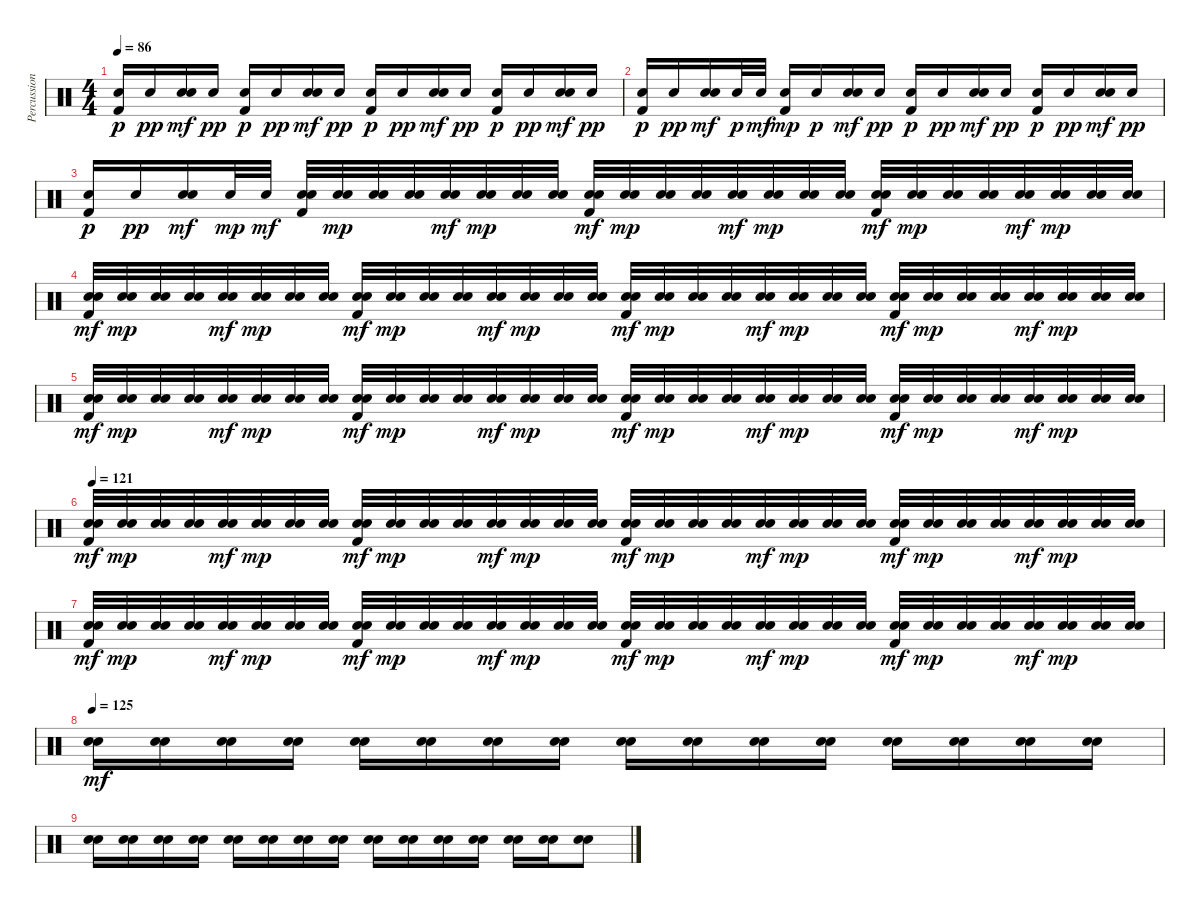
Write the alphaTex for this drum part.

\track ("Percussion" "Percussion") {instrument percussion}
\staff
\articulation defaults
\ts (4 4)
\tempo 86
\clef neutral
\ks c
("Kick (hit) 2" "Snare (hit) 2").16{dy p} "Snare (hit) 2".16{dy pp} ("Electric Snare (hit)" "Snare (hit) 2").16{dy mf} "Snare (hit) 2".16{dy pp} ("Kick (hit) 2" "Snare (hit) 2").16{dy p} "Snare (hit) 2".16{dy pp} ("Electric Snare (hit)" "Snare (hit) 2").16{dy mf} "Snare (hit) 2".16{dy pp} ("Kick (hit) 2" "Snare (hit) 2").16{dy p} "Snare (hit) 2".16{dy pp} ("Electric Snare (hit)" "Snare (hit) 2").16{dy mf} "Snare (hit) 2".16{dy pp} ("Kick (hit) 2" "Snare (hit) 2").16{dy p} "Snare (hit) 2".16{dy pp} ("Electric Snare (hit)" "Snare (hit) 2").16{dy mf} "Snare (hit) 2".16{dy pp} |
("Kick (hit) 2" "Snare (hit) 2").16{dy p} "Snare (hit) 2".16{dy pp} ("Electric Snare (hit)" "Snare (hit) 2").16{dy mf} "Snare (hit) 2".32{dy p} "Snare (hit) 2".32{dy mf} ("Kick (hit) 2" "Snare (hit) 2").16{dy mp} "Snare (hit) 2".16{dy p} ("Electric Snare (hit)" "Snare (hit) 2").16{dy mf} "Snare (hit) 2".16{dy pp} ("Kick (hit) 2" "Snare (hit) 2").16{dy p} "Snare (hit) 2".16{dy pp} ("Electric Snare (hit)" "Snare (hit) 2").16{dy mf} "Snare (hit) 2".16{dy pp} ("Kick (hit) 2" "Snare (hit) 2").16{dy p} "Snare (hit) 2".16{dy pp} ("Electric Snare (hit)" "Snare (hit) 2").16{dy mf} "Snare (hit) 2".16{dy pp} |
("Kick (hit) 2" "Snare (hit) 2").16{dy p} "Snare (hit) 2".16{dy pp} ("Electric Snare (hit)" "Snare (hit) 2").16{dy mf} "Snare (hit) 2".32{dy mp} "Snare (hit) 2".32{dy mf} ("Kick (hit) 2" "Snare (hit) 2" "Electric Snare (hit)").32 ("Electric Snare (hit)" "Snare (hit) 2").32{dy mp} ("Electric Snare (hit)" "Snare (hit) 2").32 ("Electric Snare (hit)" "Snare (hit) 2").32 ("Snare (hit) 2" "Electric Snare (hit)").32{dy mf} ("Electric Snare (hit)" "Snare (hit) 2").32{dy mp} ("Electric Snare (hit)" "Snare (hit) 2").32 ("Electric Snare (hit)" "Snare (hit) 2").32 ("Kick (hit) 2" "Snare (hit) 2" "Electric Snare (hit)").32{dy mf} ("Electric Snare (hit)" "Snare (hit) 2").32{dy mp} ("Electric Snare (hit)" "Snare (hit) 2").32 ("Electric Snare (hit)" "Snare (hit) 2").32 ("Snare (hit) 2" "Electric Snare (hit)").32{dy mf} ("Electric Snare (hit)" "Snare (hit) 2").32{dy mp} ("Electric Snare (hit)" "Snare (hit) 2").32 ("Electric Snare (hit)" "Snare (hit) 2").32 ("Kick (hit) 2" "Snare (hit) 2" "Electric Snare (hit)").32{dy mf} ("Electric Snare (hit)" "Snare (hit) 2").32{dy mp} ("Electric Snare (hit)" "Snare (hit) 2").32 ("Electric Snare (hit)" "Snare (hit) 2").32 ("Snare (hit) 2" "Electric Snare (hit)").32{dy mf} ("Electric Snare (hit)" "Snare (hit) 2").32{dy mp} ("Electric Snare (hit)" "Snare (hit) 2").32 ("Electric Snare (hit)" "Snare (hit) 2").32 |
("Kick (hit) 2" "Snare (hit) 2" "Electric Snare (hit)").32{dy mf} ("Electric Snare (hit)" "Snare (hit) 2").32{dy mp} ("Electric Snare (hit)" "Snare (hit) 2").32 ("Electric Snare (hit)" "Snare (hit) 2").32 ("Snare (hit) 2" "Electric Snare (hit)").32{dy mf} ("Electric Snare (hit)" "Snare (hit) 2").32{dy mp} ("Electric Snare (hit)" "Snare (hit) 2").32 ("Electric Snare (hit)" "Snare (hit) 2").32 ("Kick (hit) 2" "Snare (hit) 2" "Electric Snare (hit)").32{dy mf} ("Electric Snare (hit)" "Snare (hit) 2").32{dy mp} ("Electric Snare (hit)" "Snare (hit) 2").32 ("Electric Snare (hit)" "Snare (hit) 2").32 ("Snare (hit) 2" "Electric Snare (hit)").32{dy mf} ("Electric Snare (hit)" "Snare (hit) 2").32{dy mp} ("Electric Snare (hit)" "Snare (hit) 2").32 ("Electric Snare (hit)" "Snare (hit) 2").32 ("Kick (hit) 2" "Snare (hit) 2" "Electric Snare (hit)").32{dy mf} ("Electric Snare (hit)" "Snare (hit) 2").32{dy mp} ("Electric Snare (hit)" "Snare (hit) 2").32 ("Electric Snare (hit)" "Snare (hit) 2").32 ("Snare (hit) 2" "Electric Snare (hit)").32{dy mf} ("Electric Snare (hit)" "Snare (hit) 2").32{dy mp} ("Electric Snare (hit)" "Snare (hit) 2").32 ("Electric Snare (hit)" "Snare (hit) 2").32 ("Kick (hit) 2" "Snare (hit) 2" "Electric Snare (hit)").32{dy mf} ("Electric Snare (hit)" "Snare (hit) 2").32{dy mp} ("Electric Snare (hit)" "Snare (hit) 2").32 ("Electric Snare (hit)" "Snare (hit) 2").32 ("Snare (hit) 2" "Electric Snare (hit)").32{dy mf} ("Electric Snare (hit)" "Snare (hit) 2").32{dy mp} ("Electric Snare (hit)" "Snare (hit) 2").32 ("Electric Snare (hit)" "Snare (hit) 2").32 |
("Kick (hit) 2" "Snare (hit) 2" "Electric Snare (hit)").32{dy mf} ("Electric Snare (hit)" "Snare (hit) 2").32{dy mp} ("Electric Snare (hit)" "Snare (hit) 2").32 ("Electric Snare (hit)" "Snare (hit) 2").32 ("Snare (hit) 2" "Electric Snare (hit)").32{dy mf} ("Electric Snare (hit)" "Snare (hit) 2").32{dy mp} ("Electric Snare (hit)" "Snare (hit) 2").32 ("Electric Snare (hit)" "Snare (hit) 2").32 ("Kick (hit) 2" "Snare (hit) 2" "Electric Snare (hit)").32{dy mf} ("Electric Snare (hit)" "Snare (hit) 2").32{dy mp} ("Electric Snare (hit)" "Snare (hit) 2").32 ("Electric Snare (hit)" "Snare (hit) 2").32 ("Snare (hit) 2" "Electric Snare (hit)").32{dy mf} ("Electric Snare (hit)" "Snare (hit) 2").32{dy mp} ("Electric Snare (hit)" "Snare (hit) 2").32 ("Electric Snare (hit)" "Snare (hit) 2").32 ("Kick (hit) 2" "Snare (hit) 2" "Electric Snare (hit)").32{dy mf} ("Electric Snare (hit)" "Snare (hit) 2").32{dy mp} ("Electric Snare (hit)" "Snare (hit) 2").32 ("Electric Snare (hit)" "Snare (hit) 2").32 ("Snare (hit) 2" "Electric Snare (hit)").32{dy mf} ("Electric Snare (hit)" "Snare (hit) 2").32{dy mp} ("Electric Snare (hit)" "Snare (hit) 2").32 ("Electric Snare (hit)" "Snare (hit) 2").32 ("Kick (hit) 2" "Snare (hit) 2" "Electric Snare (hit)").32{dy mf} ("Electric Snare (hit)" "Snare (hit) 2").32{dy mp} ("Electric Snare (hit)" "Snare (hit) 2").32 ("Electric Snare (hit)" "Snare (hit) 2").32 ("Snare (hit) 2" "Electric Snare (hit)").32{dy mf} ("Electric Snare (hit)" "Snare (hit) 2").32{dy mp} ("Electric Snare (hit)" "Snare (hit) 2").32 ("Electric Snare (hit)" "Snare (hit) 2").32 |
\tempo 121
("Kick (hit) 2" "Snare (hit) 2" "Electric Snare (hit)").32{dy mf} ("Electric Snare (hit)" "Snare (hit) 2").32{dy mp} ("Electric Snare (hit)" "Snare (hit) 2").32 ("Electric Snare (hit)" "Snare (hit) 2").32 ("Snare (hit) 2" "Electric Snare (hit)").32{dy mf} ("Electric Snare (hit)" "Snare (hit) 2").32{dy mp} ("Electric Snare (hit)" "Snare (hit) 2").32 ("Electric Snare (hit)" "Snare (hit) 2").32 ("Kick (hit) 2" "Snare (hit) 2" "Electric Snare (hit)").32{dy mf} ("Electric Snare (hit)" "Snare (hit) 2").32{dy mp} ("Electric Snare (hit)" "Snare (hit) 2").32 ("Electric Snare (hit)" "Snare (hit) 2").32 ("Snare (hit) 2" "Electric Snare (hit)").32{dy mf} ("Electric Snare (hit)" "Snare (hit) 2").32{dy mp} ("Electric Snare (hit)" "Snare (hit) 2").32 ("Electric Snare (hit)" "Snare (hit) 2").32 ("Kick (hit) 2" "Snare (hit) 2" "Electric Snare (hit)").32{dy mf} ("Electric Snare (hit)" "Snare (hit) 2").32{dy mp} ("Electric Snare (hit)" "Snare (hit) 2").32 ("Electric Snare (hit)" "Snare (hit) 2").32 ("Snare (hit) 2" "Electric Snare (hit)").32{dy mf} ("Electric Snare (hit)" "Snare (hit) 2").32{dy mp} ("Electric Snare (hit)" "Snare (hit) 2").32 ("Electric Snare (hit)" "Snare (hit) 2").32 ("Kick (hit) 2" "Snare (hit) 2" "Electric Snare (hit)").32{dy mf} ("Electric Snare (hit)" "Snare (hit) 2").32{dy mp} ("Electric Snare (hit)" "Snare (hit) 2").32 ("Electric Snare (hit)" "Snare (hit) 2").32 ("Snare (hit) 2" "Electric Snare (hit)").32{dy mf} ("Electric Snare (hit)" "Snare (hit) 2").32{dy mp} ("Electric Snare (hit)" "Snare (hit) 2").32 ("Electric Snare (hit)" "Snare (hit) 2").32 |
("Kick (hit) 2" "Snare (hit) 2" "Electric Snare (hit)").32{dy mf} ("Electric Snare (hit)" "Snare (hit) 2").32{dy mp} ("Electric Snare (hit)" "Snare (hit) 2").32 ("Electric Snare (hit)" "Snare (hit) 2").32 ("Snare (hit) 2" "Electric Snare (hit)").32{dy mf} ("Electric Snare (hit)" "Snare (hit) 2").32{dy mp} ("Electric Snare (hit)" "Snare (hit) 2").32 ("Electric Snare (hit)" "Snare (hit) 2").32 ("Kick (hit) 2" "Snare (hit) 2" "Electric Snare (hit)").32{dy mf} ("Electric Snare (hit)" "Snare (hit) 2").32{dy mp} ("Electric Snare (hit)" "Snare (hit) 2").32 ("Electric Snare (hit)" "Snare (hit) 2").32 ("Snare (hit) 2" "Electric Snare (hit)").32{dy mf volume 8} ("Electric Snare (hit)" "Snare (hit) 2").32{dy mp} ("Electric Snare (hit)" "Snare (hit) 2").32 ("Electric Snare (hit)" "Snare (hit) 2").32 ("Kick (hit) 2" "Snare (hit) 2" "Electric Snare (hit)").32{dy mf} ("Electric Snare (hit)" "Snare (hit) 2").32{dy mp} ("Electric Snare (hit)" "Snare (hit) 2").32 ("Electric Snare (hit)" "Snare (hit) 2").32 ("Snare (hit) 2" "Electric Snare (hit)").32{dy mf} ("Electric Snare (hit)" "Snare (hit) 2").32{dy mp} ("Electric Snare (hit)" "Snare (hit) 2").32 ("Electric Snare (hit)" "Snare (hit) 2").32 ("Kick (hit) 2" "Snare (hit) 2" "Electric Snare (hit)").32{dy mf} ("Electric Snare (hit)" "Snare (hit) 2").32{dy mp} ("Electric Snare (hit)" "Snare (hit) 2").32 ("Electric Snare (hit)" "Snare (hit) 2").32 ("Snare (hit) 2" "Electric Snare (hit)").32{dy mf} ("Electric Snare (hit)" "Snare (hit) 2").32{dy mp} ("Electric Snare (hit)" "Snare (hit) 2").32 ("Electric Snare (hit)" "Snare (hit) 2").32 |
\tempo 125
("Electric Snare (hit)" "Snare (hit) 2").16{dy mf volume 12} ("Electric Snare (hit)" "Snare (hit) 2").16 ("Electric Snare (hit)" "Snare (hit) 2").16 ("Electric Snare (hit)" "Snare (hit) 2").16 ("Electric Snare (hit)" "Snare (hit) 2").16 ("Electric Snare (hit)" "Snare (hit) 2").16 ("Electric Snare (hit)" "Snare (hit) 2").16 ("Electric Snare (hit)" "Snare (hit) 2").16 ("Electric Snare (hit)" "Snare (hit) 2").16 ("Electric Snare (hit)" "Snare (hit) 2").16 ("Electric Snare (hit)" "Snare (hit) 2").16 ("Electric Snare (hit)" "Snare (hit) 2").16 ("Electric Snare (hit)" "Snare (hit) 2").16 ("Electric Snare (hit)" "Snare (hit) 2").16 ("Electric Snare (hit)" "Snare (hit) 2").16 ("Electric Snare (hit)" "Snare (hit) 2").16 |
("Electric Snare (hit)" "Snare (hit) 2").16 ("Electric Snare (hit)" "Snare (hit) 2").16 ("Electric Snare (hit)" "Snare (hit) 2").16 ("Electric Snare (hit)" "Snare (hit) 2").16 ("Electric Snare (hit)" "Snare (hit) 2").16 ("Electric Snare (hit)" "Snare (hit) 2").16 ("Electric Snare (hit)" "Snare (hit) 2").16 ("Electric Snare (hit)" "Snare (hit) 2").16 ("Electric Snare (hit)" "Snare (hit) 2").16 ("Electric Snare (hit)" "Snare (hit) 2").16 ("Electric Snare (hit)" "Snare (hit) 2").16 ("Electric Snare (hit)" "Snare (hit) 2").16 ("Electric Snare (hit)" "Snare (hit) 2").16 ("Electric Snare (hit)" "Snare (hit) 2").16 ("Electric Snare (hit)" "Snare (hit) 2").8
